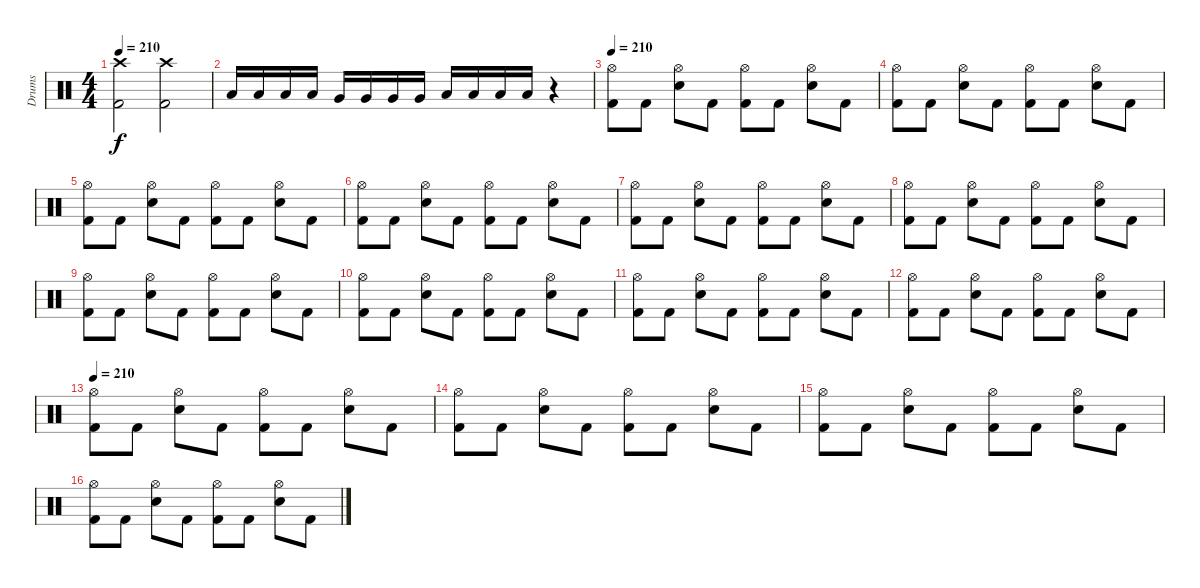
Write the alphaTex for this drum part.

\track ("Drums" "Drums") {instrument percussion}
\staff {score}
\articulation defaults
\ts (4 4)
\tempo 210
\clef neutral
\ks c
("Crash high (hit)" "Kick (hit) 2").2{dy f} ("Crash high (hit)" "Kick (hit) 2").2 |
"Low Tom (hit)".16 "Low Tom (hit)".16 "Low Tom (hit)".16 "Low Tom (hit)".16 "Very Low Tom (hit)".16 "Very Low Tom (hit)".16 "Very Low Tom (hit)".16 "Very Low Tom (hit)".16 "Low Floor Tom (hit)".16 "Low Floor Tom (hit)".16 "Low Floor Tom (hit)".16 "Low Floor Tom (hit)".16 r.4 |
\tempo 210
("Hi-Hat (open)" "Kick (hit) 2").8 "Kick (hit) 2".8 ("Hi-Hat (open)" "Electric Snare (hit)").8 "Kick (hit) 2".8 ("Hi-Hat (open)" "Kick (hit) 2").8 "Kick (hit) 2".8 ("Hi-Hat (open)" "Electric Snare (hit)").8 "Kick (hit) 2".8 |
("Hi-Hat (open)" "Kick (hit) 2").8 "Kick (hit) 2".8 ("Hi-Hat (open)" "Electric Snare (hit)").8 "Kick (hit) 2".8 ("Hi-Hat (open)" "Kick (hit) 2").8 "Kick (hit) 2".8 ("Hi-Hat (open)" "Electric Snare (hit)").8 "Kick (hit) 2".8 |
("Hi-Hat (open)" "Kick (hit) 2").8 "Kick (hit) 2".8 ("Hi-Hat (open)" "Electric Snare (hit)").8 "Kick (hit) 2".8 ("Hi-Hat (open)" "Kick (hit) 2").8 "Kick (hit) 2".8 ("Hi-Hat (open)" "Electric Snare (hit)").8 "Kick (hit) 2".8 |
("Hi-Hat (open)" "Kick (hit) 2").8 "Kick (hit) 2".8 ("Hi-Hat (open)" "Electric Snare (hit)").8 "Kick (hit) 2".8 ("Hi-Hat (open)" "Kick (hit) 2").8 "Kick (hit) 2".8 ("Hi-Hat (open)" "Electric Snare (hit)").8 "Kick (hit) 2".8 |
("Hi-Hat (open)" "Kick (hit) 2").8 "Kick (hit) 2".8 ("Hi-Hat (open)" "Electric Snare (hit)").8 "Kick (hit) 2".8 ("Hi-Hat (open)" "Kick (hit) 2").8 "Kick (hit) 2".8 ("Hi-Hat (open)" "Electric Snare (hit)").8 "Kick (hit) 2".8 |
("Hi-Hat (open)" "Kick (hit) 2").8 "Kick (hit) 2".8 ("Hi-Hat (open)" "Electric Snare (hit)").8 "Kick (hit) 2".8 ("Hi-Hat (open)" "Kick (hit) 2").8 "Kick (hit) 2".8 ("Hi-Hat (open)" "Electric Snare (hit)").8 "Kick (hit) 2".8 |
("Hi-Hat (open)" "Kick (hit) 2").8 "Kick (hit) 2".8 ("Hi-Hat (open)" "Electric Snare (hit)").8 "Kick (hit) 2".8 ("Hi-Hat (open)" "Kick (hit) 2").8 "Kick (hit) 2".8 ("Hi-Hat (open)" "Electric Snare (hit)").8 "Kick (hit) 2".8 |
("Hi-Hat (open)" "Kick (hit) 2").8 "Kick (hit) 2".8 ("Hi-Hat (open)" "Electric Snare (hit)").8 "Kick (hit) 2".8 ("Hi-Hat (open)" "Kick (hit) 2").8 "Kick (hit) 2".8 ("Hi-Hat (open)" "Electric Snare (hit)").8 "Kick (hit) 2".8 |
("Hi-Hat (open)" "Kick (hit) 2").8 "Kick (hit) 2".8 ("Hi-Hat (open)" "Electric Snare (hit)").8 "Kick (hit) 2".8 ("Hi-Hat (open)" "Kick (hit) 2").8 "Kick (hit) 2".8 ("Hi-Hat (open)" "Electric Snare (hit)").8 "Kick (hit) 2".8 |
("Hi-Hat (open)" "Kick (hit) 2").8 "Kick (hit) 2".8 ("Hi-Hat (open)" "Electric Snare (hit)").8 "Kick (hit) 2".8 ("Hi-Hat (open)" "Kick (hit) 2").8 "Kick (hit) 2".8 ("Hi-Hat (open)" "Electric Snare (hit)").8 "Kick (hit) 2".8 |
\tempo 210
("Hi-Hat (open)" "Kick (hit) 2").8 "Kick (hit) 2".8 ("Hi-Hat (open)" "Electric Snare (hit)").8 "Kick (hit) 2".8 ("Hi-Hat (open)" "Kick (hit) 2").8 "Kick (hit) 2".8 ("Hi-Hat (open)" "Electric Snare (hit)").8 "Kick (hit) 2".8 |
("Hi-Hat (open)" "Kick (hit) 2").8 "Kick (hit) 2".8 ("Hi-Hat (open)" "Electric Snare (hit)").8 "Kick (hit) 2".8 ("Hi-Hat (open)" "Kick (hit) 2").8 "Kick (hit) 2".8 ("Hi-Hat (open)" "Electric Snare (hit)").8 "Kick (hit) 2".8 |
("Hi-Hat (open)" "Kick (hit) 2").8 "Kick (hit) 2".8 ("Hi-Hat (open)" "Electric Snare (hit)").8 "Kick (hit) 2".8 ("Hi-Hat (open)" "Kick (hit) 2").8 "Kick (hit) 2".8 ("Hi-Hat (open)" "Electric Snare (hit)").8 "Kick (hit) 2".8 |
("Hi-Hat (open)" "Kick (hit) 2").8 "Kick (hit) 2".8 ("Hi-Hat (open)" "Electric Snare (hit)").8 "Kick (hit) 2".8 ("Hi-Hat (open)" "Kick (hit) 2").8 "Kick (hit) 2".8 ("Hi-Hat (open)" "Electric Snare (hit)").8 "Kick (hit) 2".8
